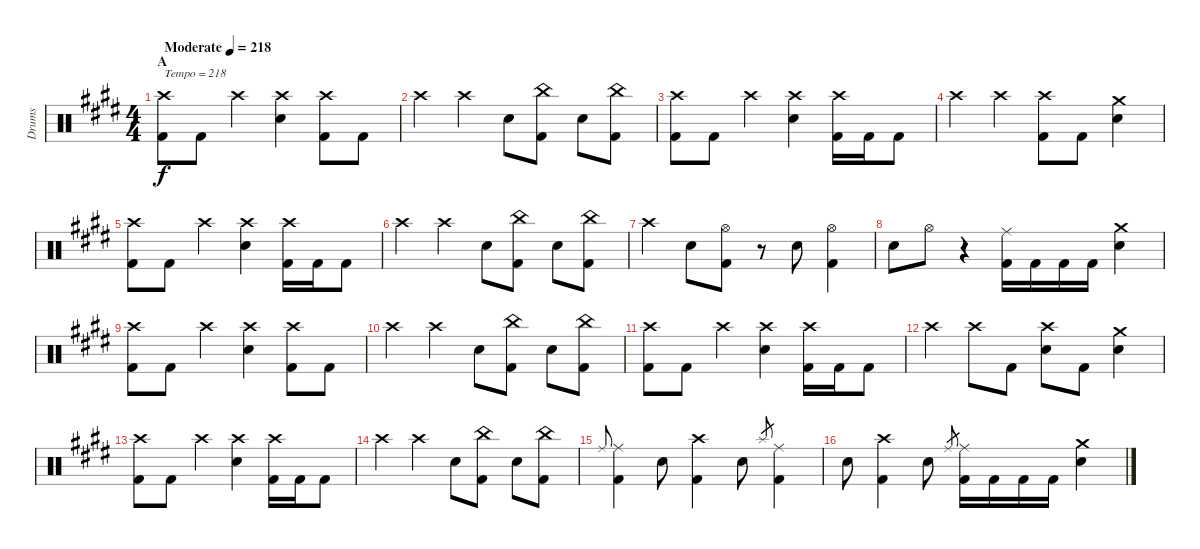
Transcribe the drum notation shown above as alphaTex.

\track ("Drums" "Drums") {instrument percussion}
\staff {score}
\articulation defaults
\ts (4 4)
\section ("" "A")
\tempo (218 "Moderate")
\clef neutral
\ks c#minor
("Crash high (hit)" "Kick (hit) 2").8{txt "Tempo = 218" dy f} "Kick (hit) 2".8 "Crash high (hit)".4 ("Crash high (hit)" "Snare (hit) 2").4 ("Crash high (hit)" "Kick (hit) 2").8 "Kick (hit) 2".8 |
"Crash high (hit)".4 "Crash high (hit)".4 "Snare (hit) 2".8 ("China (hit)" "Kick (hit) 2").8 "Snare (hit) 2".8 ("China (hit)" "Kick (hit) 2").8 |
("Crash high (hit)" "Kick (hit) 2").8 "Kick (hit) 2".8 "Crash high (hit)".4 ("Crash high (hit)" "Snare (hit) 2").4 ("Crash high (hit)" "Kick (hit) 2").16 "Kick (hit) 2".16 "Kick (hit) 2".8 |
"Crash high (hit)".4 "Crash high (hit)".4 ("Crash high (hit)" "Kick (hit) 2").8 "Kick (hit) 2".8 ("Crash medium (hit)" "Snare (hit) 2").4 |
("Crash high (hit)" "Kick (hit) 2").8 "Kick (hit) 2".8 "Crash high (hit)".4 ("Crash high (hit)" "Snare (hit) 2").4 ("Crash high (hit)" "Kick (hit) 2").16 "Kick (hit) 2".16 "Kick (hit) 2".8 |
"Crash high (hit)".4 "Crash high (hit)".4 "Snare (hit) 2".8 ("China (hit)" "Kick (hit) 2").8 "Snare (hit) 2".8 ("China (hit)" "Kick (hit) 2").8 |
"Crash high (hit)".4 "Snare (hit) 2".8 ("Hi-Hat (open)" "Kick (hit) 2").8 r.8 "Snare (hit) 2".8 ("Hi-Hat (open)" "Kick (hit) 2").4 |
"Snare (hit) 2".8 "Hi-Hat (open)".8 r.4 ("Ride (middle)" "Kick (hit) 2").16 "Kick (hit) 2".16 "Kick (hit) 2".16 "Kick (hit) 2".16 ("Crash medium (hit)" "Snare (hit) 2").4 |
("Crash high (hit)" "Kick (hit) 2").8 "Kick (hit) 2".8 "Crash high (hit)".4 ("Crash high (hit)" "Snare (hit) 2").4 ("Crash high (hit)" "Kick (hit) 2").8 "Kick (hit) 2".8 |
"Crash high (hit)".4 "Crash high (hit)".4 "Snare (hit) 2".8 ("China (hit)" "Kick (hit) 2").8 "Snare (hit) 2".8 ("China (hit)" "Kick (hit) 2").8 |
("Crash high (hit)" "Kick (hit) 2").8 "Kick (hit) 2".8 "Crash high (hit)".4 ("Crash high (hit)" "Snare (hit) 2").4 ("Crash high (hit)" "Kick (hit) 2").16 "Kick (hit) 2".16 "Kick (hit) 2".8 |
"Crash high (hit)".4 "Crash high (hit)".8 "Kick (hit) 2".8 ("Crash high (hit)" "Snare (hit) 2").8 "Kick (hit) 2".8 ("Crash medium (hit)" "Snare (hit) 2").4 |
("Crash high (hit)" "Kick (hit) 2").8 "Kick (hit) 2".8 "Crash high (hit)".4 ("Crash high (hit)" "Snare (hit) 2").4 ("Crash high (hit)" "Kick (hit) 2").16 "Kick (hit) 2".16 "Kick (hit) 2".8 |
"Crash high (hit)".4 "Crash high (hit)".4 "Snare (hit) 2".8 ("China (hit)" "Kick (hit) 2").8 "Snare (hit) 2".8 ("China (hit)" "Kick (hit) 2").8 |
"Ride (middle)".8{gr onbeat} ("Ride (middle)" "Kick (hit) 2").4 "Snare (hit) 2".8 ("Crash high (hit)" "Kick (hit) 2").4 "Snare (hit) 2".8 "Splash (hit)".8{gr} ("Ride (middle)" "Kick (hit) 2").4 |
"Snare (hit) 2".8 ("Crash high (hit)" "Kick (hit) 2").4 "Snare (hit) 2".8 "Ride (middle)".8{gr} ("Ride (middle)" "Kick (hit) 2").16 "Kick (hit) 2".16 "Kick (hit) 2".16 "Kick (hit) 2".16 ("Crash medium (hit)" "Snare (hit) 2").4
